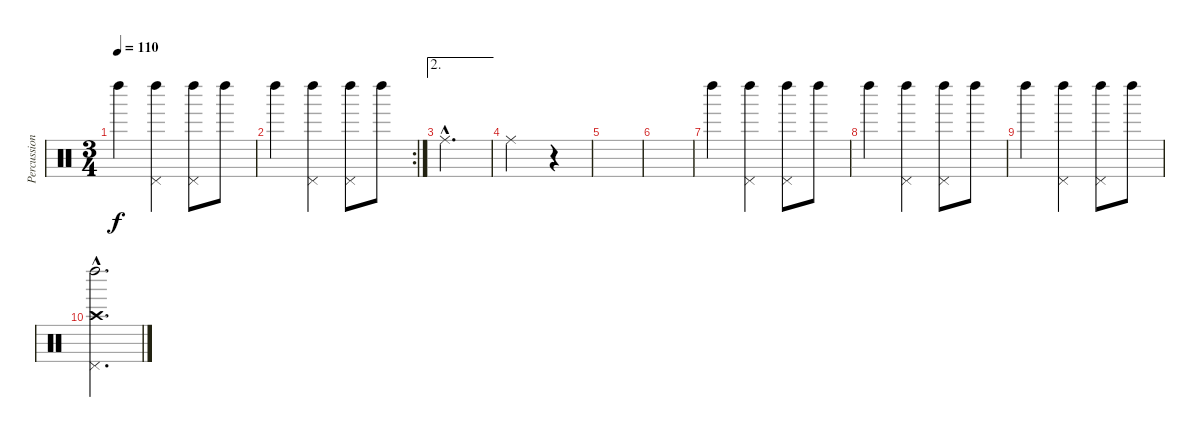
\track ("Percussions" "Percussion") {instrument percussion}
\staff {score}
\articulation defaults
\ts (3 4)
\tempo 110
\clef neutral
\ks c "Left Maraca (hit)".4{dy f}
("Left Maraca (hit)" "Pedal Hi-Hat (hit)").4 ("Left Maraca (hit)" "Pedal Hi-Hat (hit)").8 "Left Maraca (hit)".8 |
\rc 2 "Left Maraca (hit)".4
("Left Maraca (hit)" "Pedal Hi-Hat (hit)").4 ("Left Maraca (hit)" "Pedal Hi-Hat (hit)").8 "Left Maraca (hit)".8 |
\ae 2 "Ride (middle)"{hac}.2{d}
|
"Ride (middle)".2 r.4 |
|
|
"Left Maraca (hit)".4 ("Left Maraca (hit)" "Pedal Hi-Hat (hit)").4 ("Left Maraca (hit)" "Pedal Hi-Hat (hit)").8 "Left Maraca (hit)".8 |
"Left Maraca (hit)".4 ("Left Maraca (hit)" "Pedal Hi-Hat (hit)").4 ("Left Maraca (hit)" "Pedal Hi-Hat (hit)").8 "Left Maraca (hit)".8 |
"Left Maraca (hit)".4 ("Left Maraca (hit)" "Pedal Hi-Hat (hit)").4 ("Left Maraca (hit)" "Pedal Hi-Hat (hit)").8 "Left Maraca (hit)".8 |
("Crash high (hit)"{hac} "Left Maraca (hit)"{hac} "Pedal Hi-Hat (hit)"{hac}).2{d}
